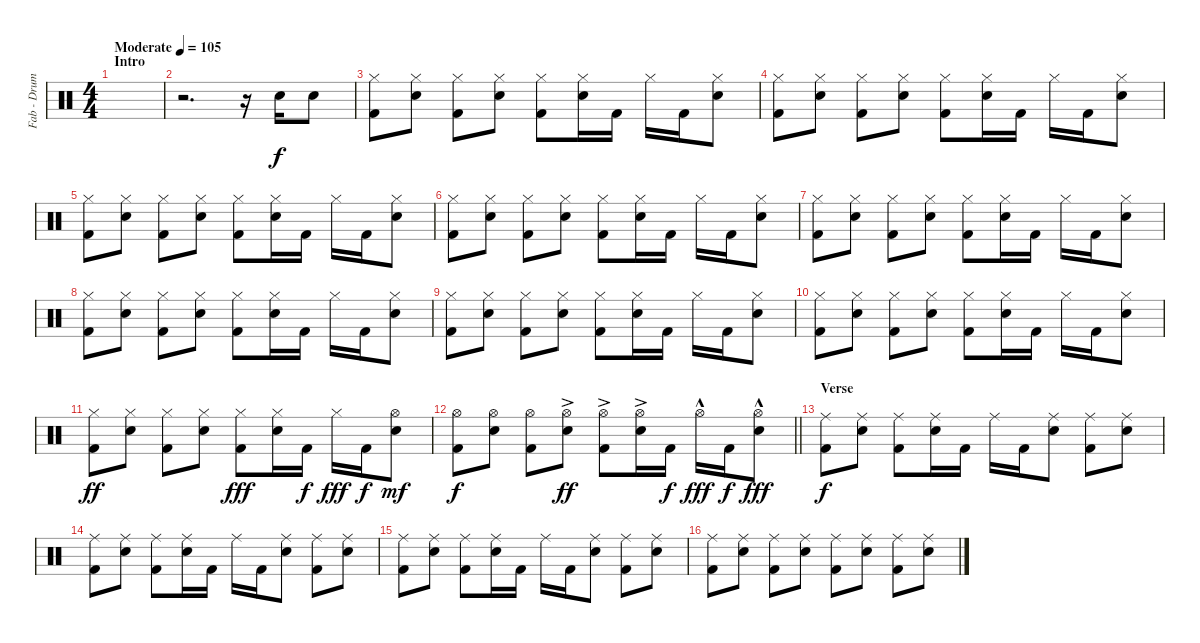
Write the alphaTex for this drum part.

\track ("Fab - Drums MIDI" "Fab - Drum") {instrument percussion}
\staff {score}
\articulation defaults
\ts (4 4)
\section ("" "Intro")
\tempo (105 "Moderate")
\clef neutral
\ks c
|
r.2{d} r.16 "Snare (hit) 2".16 "Snare (hit) 2".8 |
("Hi-Hat (closed)" "Kick (hit) 2").8 ("Hi-Hat (closed)" "Snare (hit) 2").8 ("Hi-Hat (closed)" "Kick (hit) 2").8 ("Hi-Hat (closed)" "Snare (hit) 2").8 ("Hi-Hat (closed)" "Kick (hit) 2").8 ("Hi-Hat (closed)" "Snare (hit) 2").16 "Kick (hit) 2".16 "Hi-Hat (closed)".16 "Kick (hit) 2".16 ("Hi-Hat (closed)" "Snare (hit) 2").8 |
("Hi-Hat (closed)" "Kick (hit) 2").8 ("Hi-Hat (closed)" "Snare (hit) 2").8 ("Hi-Hat (closed)" "Kick (hit) 2").8 ("Hi-Hat (closed)" "Snare (hit) 2").8 ("Hi-Hat (closed)" "Kick (hit) 2").8 ("Hi-Hat (closed)" "Snare (hit) 2").16 "Kick (hit) 2".16 "Hi-Hat (closed)".16 "Kick (hit) 2".16 ("Hi-Hat (closed)" "Snare (hit) 2").8 |
("Hi-Hat (closed)" "Kick (hit) 2").8 ("Hi-Hat (closed)" "Snare (hit) 2").8 ("Hi-Hat (closed)" "Kick (hit) 2").8 ("Hi-Hat (closed)" "Snare (hit) 2").8 ("Hi-Hat (closed)" "Kick (hit) 2").8 ("Hi-Hat (closed)" "Snare (hit) 2").16 "Kick (hit) 2".16 "Hi-Hat (closed)".16 "Kick (hit) 2".16 ("Hi-Hat (closed)" "Snare (hit) 2").8 |
("Hi-Hat (closed)" "Kick (hit) 2").8 ("Hi-Hat (closed)" "Snare (hit) 2").8 ("Hi-Hat (closed)" "Kick (hit) 2").8 ("Hi-Hat (closed)" "Snare (hit) 2").8 ("Hi-Hat (closed)" "Kick (hit) 2").8 ("Hi-Hat (closed)" "Snare (hit) 2").16 "Kick (hit) 2".16 "Hi-Hat (closed)".16 "Kick (hit) 2".16 ("Hi-Hat (closed)" "Snare (hit) 2").8 |
("Hi-Hat (closed)" "Kick (hit) 2").8 ("Hi-Hat (closed)" "Snare (hit) 2").8 ("Hi-Hat (closed)" "Kick (hit) 2").8 ("Hi-Hat (closed)" "Snare (hit) 2").8 ("Hi-Hat (closed)" "Kick (hit) 2").8 ("Hi-Hat (closed)" "Snare (hit) 2").16 "Kick (hit) 2".16 "Hi-Hat (closed)".16 "Kick (hit) 2".16 ("Hi-Hat (closed)" "Snare (hit) 2").8 |
("Hi-Hat (closed)" "Kick (hit) 2").8 ("Hi-Hat (closed)" "Snare (hit) 2").8 ("Hi-Hat (closed)" "Kick (hit) 2").8 ("Hi-Hat (closed)" "Snare (hit) 2").8 ("Hi-Hat (closed)" "Kick (hit) 2").8 ("Hi-Hat (closed)" "Snare (hit) 2").16 "Kick (hit) 2".16 "Hi-Hat (closed)".16 "Kick (hit) 2".16 ("Hi-Hat (closed)" "Snare (hit) 2").8 |
("Hi-Hat (closed)" "Kick (hit) 2").8 ("Hi-Hat (closed)" "Snare (hit) 2").8 ("Hi-Hat (closed)" "Kick (hit) 2").8 ("Hi-Hat (closed)" "Snare (hit) 2").8 ("Hi-Hat (closed)" "Kick (hit) 2").8 ("Hi-Hat (closed)" "Snare (hit) 2").16 "Kick (hit) 2".16 "Hi-Hat (closed)".16 "Kick (hit) 2".16 ("Hi-Hat (closed)" "Snare (hit) 2").8 |
("Hi-Hat (closed)" "Kick (hit) 2").8 ("Hi-Hat (closed)" "Snare (hit) 2").8 ("Hi-Hat (closed)" "Kick (hit) 2").8 ("Hi-Hat (closed)" "Snare (hit) 2").8 ("Hi-Hat (closed)" "Kick (hit) 2").8 ("Hi-Hat (closed)" "Snare (hit) 2").16 "Kick (hit) 2".16 "Hi-Hat (closed)".16 "Kick (hit) 2".16 ("Hi-Hat (closed)" "Snare (hit) 2").8 |
("Hi-Hat (closed)" "Kick (hit) 2").8{dy ff} ("Hi-Hat (closed)" "Snare (hit) 2").8 ("Hi-Hat (closed)" "Kick (hit) 2").8 ("Hi-Hat (closed)" "Snare (hit) 2").8 ("Hi-Hat (closed)" "Kick (hit) 2").8{dy fff} ("Hi-Hat (closed)" "Snare (hit) 2").16 "Kick (hit) 2".16{dy f} "Hi-Hat (closed)".16{dy fff} "Kick (hit) 2".16{dy f} ("Hi-Hat (open)" "Snare (hit) 2").8{dy mf} |
\barLineRight lightlight
("Hi-Hat (open)" "Kick (hit) 2").8{dy f} ("Hi-Hat (open)" "Snare (hit) 2").8 ("Hi-Hat (open)" "Kick (hit) 2").8 ("Hi-Hat (open)"{ac} "Snare (hit) 2").8{dy ff} ("Hi-Hat (open)"{ac} "Kick (hit) 2").8 ("Hi-Hat (open)"{ac} "Snare (hit) 2").16 "Kick (hit) 2".16{dy f} "Hi-Hat (open)"{hac}.16{dy fff} "Kick (hit) 2".16{dy f} ("Hi-Hat (open)"{hac} "Snare (hit) 2").8{dy fff} |
\section ("" "Verse")
("Ride (middle)" "Kick (hit) 2").8{dy f} ("Ride (middle)" "Snare (hit) 2").8 ("Ride (middle)" "Kick (hit) 2").8 ("Ride (middle)" "Snare (hit) 2").16 "Kick (hit) 2".16 "Ride (middle)".16 "Kick (hit) 2".16 ("Ride (middle)" "Snare (hit) 2").8 ("Ride (middle)" "Kick (hit) 2").8 ("Ride (middle)" "Snare (hit) 2").8 |
("Ride (middle)" "Kick (hit) 2").8 ("Ride (middle)" "Snare (hit) 2").8 ("Ride (middle)" "Kick (hit) 2").8 ("Ride (middle)" "Snare (hit) 2").16 "Kick (hit) 2".16 "Ride (middle)".16 "Kick (hit) 2".16 ("Ride (middle)" "Snare (hit) 2").8 ("Ride (middle)" "Kick (hit) 2").8 ("Ride (middle)" "Snare (hit) 2").8 |
("Ride (middle)" "Kick (hit) 2").8 ("Ride (middle)" "Snare (hit) 2").8 ("Ride (middle)" "Kick (hit) 2").8 ("Ride (middle)" "Snare (hit) 2").16 "Kick (hit) 2".16 "Ride (middle)".16 "Kick (hit) 2".16 ("Ride (middle)" "Snare (hit) 2").8 ("Ride (middle)" "Kick (hit) 2").8 ("Ride (middle)" "Snare (hit) 2").8 |
("Ride (middle)" "Kick (hit) 2").8 ("Ride (middle)" "Snare (hit) 2").8 ("Ride (middle)" "Kick (hit) 2").8 ("Ride (middle)" "Snare (hit) 2").8 ("Ride (middle)" "Kick (hit) 2").8 ("Ride (middle)" "Snare (hit) 2").8 ("Ride (middle)" "Kick (hit) 2").8 ("Ride (middle)" "Snare (hit) 2").8
